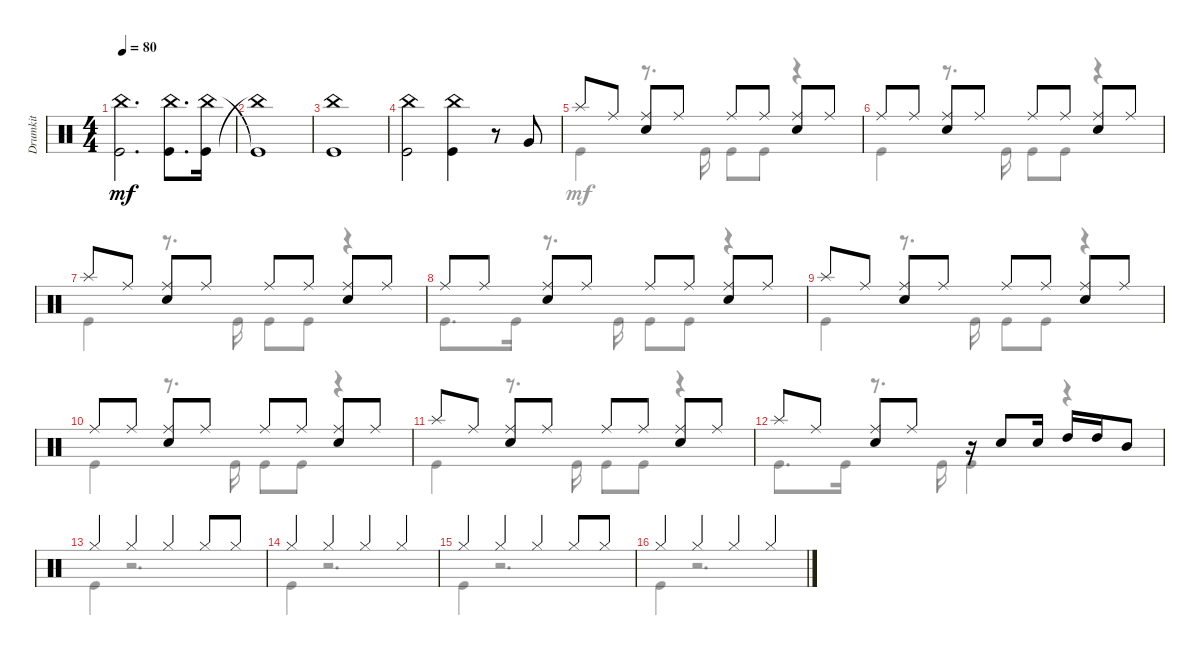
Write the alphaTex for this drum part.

\track ("Drumkit" "Drumkit") {instrument percussion}
\staff {score}
\articulation defaults
\voice
\ts (4 4)
\tempo 80
\clef neutral
\ks c
("Kick (hit)" "China (hit)").2{d dy mf} ("China (hit)" "Kick (hit)").8{d} ("Kick (hit)" "China (hit)").16 |
("China (hit)"{t} "Kick (hit)"{t}).1 |
("China (hit)" "Kick (hit)").1 |
("China (hit)" "Kick (hit)").2 ("China (hit)" "Kick (hit)").4 r.8 "Very Low Tom (hit)".8 |
"Splash (hit)".8 "Ride (middle)".8 ("Snare (hit) 2" "Ride (middle)").8 "Ride (middle)".8 "Ride (middle)".8 "Ride (middle)".8 ("Snare (hit) 2" "Ride (middle)").8 "Ride (middle)".8 |
"Ride (middle)".8 "Ride (middle)".8 ("Snare (hit) 2" "Ride (middle)").8 "Ride (middle)".8 "Ride (middle)".8 "Ride (middle)".8 ("Snare (hit) 2" "Ride (middle)").8 "Ride (middle)".8 |
"Splash (hit)".8 "Ride (middle)".8 ("Snare (hit) 2" "Ride (middle)").8 "Ride (middle)".8 "Ride (middle)".8 "Ride (middle)".8 ("Snare (hit) 2" "Ride (middle)").8 "Ride (middle)".8 |
"Ride (middle)".8 "Ride (middle)".8 ("Snare (hit) 2" "Ride (middle)").8 "Ride (middle)".8 "Ride (middle)".8 "Ride (middle)".8 ("Snare (hit) 2" "Ride (middle)").8 "Ride (middle)".8 |
"Splash (hit)".8 "Ride (middle)".8 ("Snare (hit) 2" "Ride (middle)").8 "Ride (middle)".8 "Ride (middle)".8 "Ride (middle)".8 ("Snare (hit) 2" "Ride (middle)").8 "Ride (middle)".8 |
"Ride (middle)".8 "Ride (middle)".8 ("Snare (hit) 2" "Ride (middle)").8 "Ride (middle)".8 "Ride (middle)".8 "Ride (middle)".8 ("Snare (hit) 2" "Ride (middle)").8 "Ride (middle)".8 |
"Splash (hit)".8 "Ride (middle)".8 ("Snare (hit) 2" "Ride (middle)").8 "Ride (middle)".8 "Ride (middle)".8 "Ride (middle)".8 ("Snare (hit) 2" "Ride (middle)").8 "Ride (middle)".8 |
"Splash (hit)".8 "Ride (middle)".8 ("Snare (hit) 2" "Ride (middle)").8 "Ride (middle)".8 r.16 "Snare (hit) 2".8 "Snare (hit) 2".16 "High Tom (hit)".16 "High Tom (hit)".16 "Mid Tom (hit)".8 |
"Hi-Hat (closed)".4 "Hi-Hat (closed)".4 "Hi-Hat (closed)".4 "Hi-Hat (closed)".8 "Hi-Hat (closed)".8 |
"Hi-Hat (closed)".4 "Hi-Hat (closed)".4 "Hi-Hat (closed)".4 "Hi-Hat (closed)".4 |
"Hi-Hat (closed)".4 "Hi-Hat (closed)".4 "Hi-Hat (closed)".4 "Hi-Hat (closed)".8 "Hi-Hat (closed)".8 |
"Hi-Hat (closed)".4 "Hi-Hat (closed)".4 "Hi-Hat (closed)".4 "Hi-Hat (closed)".4
\voice
\clef neutral
\ottava regular
\simile none
\ks c
|
|
|
|
"Kick (hit)".4 r.8{d} "Kick (hit)".16 "Kick (hit)".8 "Kick (hit)".8 r.4 |
"Kick (hit)".4 r.8{d} "Kick (hit)".16 "Kick (hit)".8 "Kick (hit)".8 r.4 |
"Kick (hit)".4 r.8{d} "Kick (hit)".16 "Kick (hit)".8 "Kick (hit)".8 r.4 |
"Kick (hit)".8{d} "Kick (hit)".16 r.8{d} "Kick (hit)".16 "Kick (hit)".8 "Kick (hit)".8 r.4 |
"Kick (hit)".4 r.8{d} "Kick (hit)".16 "Kick (hit)".8 "Kick (hit)".8 r.4 |
"Kick (hit)".4 r.8{d} "Kick (hit)".16 "Kick (hit)".8 "Kick (hit)".8 r.4 |
"Kick (hit)".4 r.8{d} "Kick (hit)".16 "Kick (hit)".8 "Kick (hit)".8 r.4 |
"Kick (hit)".8{d} "Kick (hit)".16 r.8{d} "Kick (hit)".16 "Kick (hit)".4 r.4 |
"Kick (hit)".4 r.2{d} |
"Kick (hit)".4 r.2{d} |
"Kick (hit)".4 r.2{d} |
"Kick (hit)".4 r.2{d}
